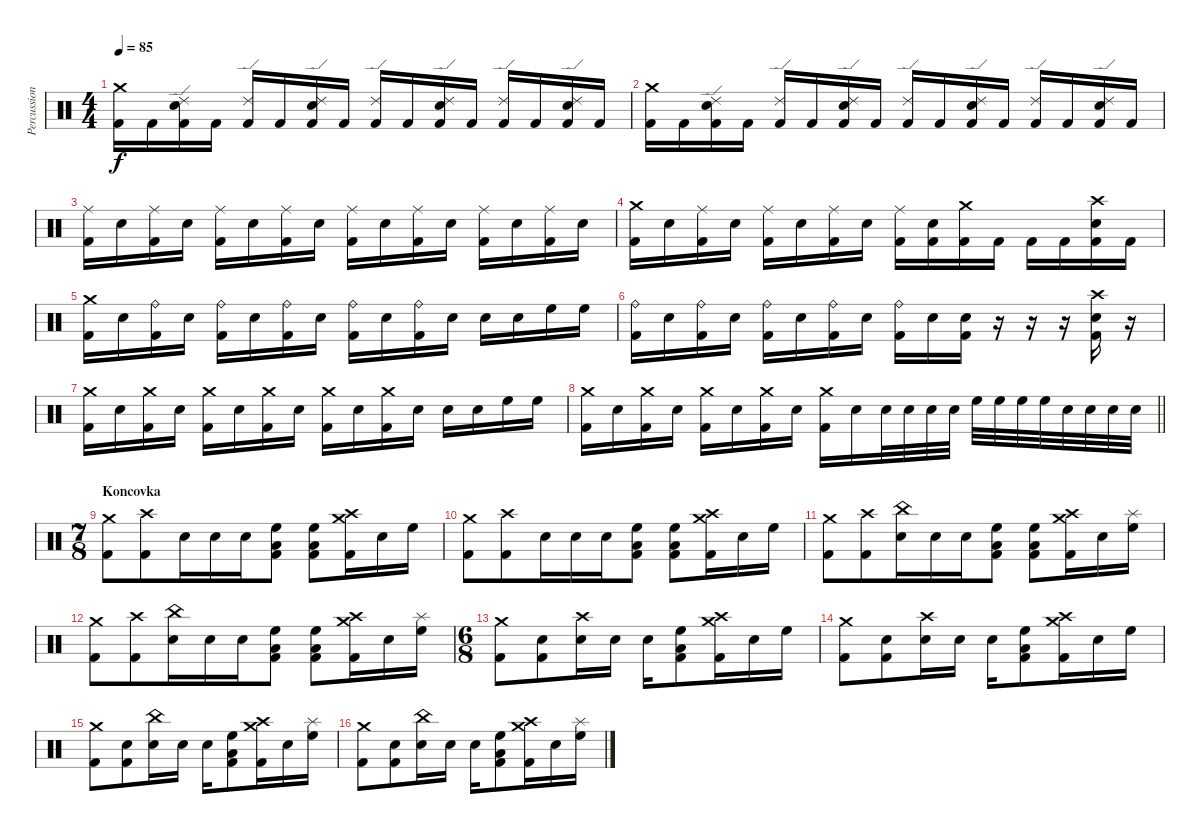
\track ("Percussion" "Percussion") {instrument percussion}
\staff {score}
\articulation defaults
\ts (4 4)
\tempo 85
\clef neutral
\ks c
("Crash medium (hit)" "Kick (hit) 2").16{dy f} "Kick (hit) 2".16 ("Ride (edge) 2" "Electric Snare (hit)" "Kick (hit) 2").16 "Kick (hit) 2".16 ("Ride (edge) 2" "Kick (hit) 2").16 "Kick (hit) 2".16 ("Ride (edge) 2" "Electric Snare (hit)" "Kick (hit) 2").16 "Kick (hit) 2".16 ("Ride (edge) 2" "Kick (hit) 2").16 "Kick (hit) 2".16 ("Ride (edge) 2" "Electric Snare (hit)" "Kick (hit) 2").16 "Kick (hit) 2".16 ("Ride (edge) 2" "Kick (hit) 2").16 "Kick (hit) 2".16 ("Ride (edge) 2" "Electric Snare (hit)" "Kick (hit) 2").16 "Kick (hit) 2".16 |
("Crash medium (hit)" "Kick (hit) 2").16 "Kick (hit) 2".16 ("Ride (edge) 2" "Electric Snare (hit)" "Kick (hit) 2").16 "Kick (hit) 2".16 ("Ride (edge) 2" "Kick (hit) 2").16 "Kick (hit) 2".16 ("Ride (edge) 2" "Electric Snare (hit)" "Kick (hit) 2").16 "Kick (hit) 2".16 ("Ride (edge) 2" "Kick (hit) 2").16 "Kick (hit) 2".16 ("Ride (edge) 2" "Electric Snare (hit)" "Kick (hit) 2").16 "Kick (hit) 2".16 ("Ride (edge) 2" "Kick (hit) 2").16 "Kick (hit) 2".16 ("Ride (edge) 2" "Electric Snare (hit)" "Kick (hit) 2").16 "Kick (hit) 2".16 |
("Ride (middle)" "Kick (hit) 2").16 "Electric Snare (hit)".16 ("Ride (middle)" "Kick (hit) 2").16 "Electric Snare (hit)".16 ("Ride (middle)" "Kick (hit) 2").16 "Electric Snare (hit)".16 ("Ride (middle)" "Kick (hit) 2").16 "Electric Snare (hit)".16 ("Ride (middle)" "Kick (hit) 2").16 "Electric Snare (hit)".16 ("Ride (middle)" "Kick (hit) 2").16 "Electric Snare (hit)".16 ("Ride (middle)" "Kick (hit) 2").16 "Electric Snare (hit)".16 ("Ride (middle)" "Kick (hit) 2").16 "Electric Snare (hit)".16 |
("Crash medium (hit)" "Kick (hit) 2").16 "Electric Snare (hit)".16 ("Ride (middle)" "Kick (hit) 2").16 "Electric Snare (hit)".16 ("Ride (middle)" "Kick (hit) 2").16 "Electric Snare (hit)".16 ("Ride (middle)" "Kick (hit) 2").16 "Electric Snare (hit)".16 ("Ride (middle)" "Kick (hit) 2").16 ("Electric Snare (hit)" "Kick (hit) 2").16 ("Crash medium (hit)" "Kick (hit) 2").16 "Kick (hit) 2".16 "Kick (hit) 2".16 "Kick (hit) 2".16 ("Crash high (hit)" "Electric Snare (hit)" "Kick (hit) 2").16 "Kick (hit) 2".16 |
("Crash medium (hit)" "Kick (hit) 2").16 "Electric Snare (hit)".16 ("Ride (bell)" "Kick (hit) 2").16 "Electric Snare (hit)".16 ("Ride (bell)" "Kick (hit) 2").16 "Electric Snare (hit)".16 ("Ride (bell)" "Kick (hit) 2").16 "Electric Snare (hit)".16 ("Ride (bell)" "Kick (hit) 2").16 "Electric Snare (hit)".16 ("Ride (bell)" "Kick (hit) 2").16 "Electric Snare (hit)".16 "Electric Snare (hit)".16 "Electric Snare (hit)".16 "High Floor Tom (hit)".16 "High Floor Tom (hit)".16 |
("Ride (bell)" "Kick (hit) 2").16 "Electric Snare (hit)".16 ("Ride (bell)" "Kick (hit) 2").16 "Electric Snare (hit)".16 ("Ride (bell)" "Kick (hit) 2").16 "Electric Snare (hit)".16 ("Ride (bell)" "Kick (hit) 2").16 "Electric Snare (hit)".16 ("Ride (bell)" "Kick (hit) 2").16 "Electric Snare (hit)".16 ("Electric Snare (hit)" "Kick (hit) 2").16 r.16 r.16 r.16 ("Crash high (hit)" "Electric Snare (hit)" "Kick (hit) 2").16 r.16 |
("Crash medium (hit)" "Kick (hit) 2").16 "Electric Snare (hit)".16 ("Crash medium (hit)" "Kick (hit) 2").16 "Electric Snare (hit)".16 ("Crash medium (hit)" "Kick (hit) 2").16 "Electric Snare (hit)".16 ("Crash medium (hit)" "Kick (hit) 2").16 "Electric Snare (hit)".16 ("Crash medium (hit)" "Kick (hit) 2").16 "Electric Snare (hit)".16 ("Crash medium (hit)" "Kick (hit) 2").16 "Electric Snare (hit)".16 "Electric Snare (hit)".16 "Electric Snare (hit)".16 "High Floor Tom (hit)".16 "High Floor Tom (hit)".16 |
\barLineRight lightlight
("Crash medium (hit)" "Kick (hit) 2").16 "Electric Snare (hit)".16 ("Crash medium (hit)" "Kick (hit) 2").16 "Electric Snare (hit)".16 ("Crash medium (hit)" "Kick (hit) 2").16 "Electric Snare (hit)".16 ("Crash medium (hit)" "Kick (hit) 2").16 "Electric Snare (hit)".16 ("Crash medium (hit)" "Kick (hit) 2").16 "Electric Snare (hit)".16 "Electric Snare (hit)".32 "Electric Snare (hit)".32 "Electric Snare (hit)".32 "Electric Snare (hit)".32 "High Floor Tom (hit)".32 "High Floor Tom (hit)".32 "High Floor Tom (hit)".32 "High Floor Tom (hit)".32 "Electric Snare (hit)".32 "Electric Snare (hit)".32 "Electric Snare (hit)".32 "Electric Snare (hit)".32 |
\ts (7 8)
\section ("" "Koncovka")
("Crash medium (hit)" "Kick (hit) 2").8 ("Crash high (hit)" "Kick (hit) 2").8 "Electric Snare (hit)".16 "Electric Snare (hit)".16 "Electric Snare (hit)".16 ("Low Tom (hit)" "High Floor Tom (hit)" "Kick (hit) 2").8 ("Low Tom (hit)" "High Floor Tom (hit)" "Kick (hit) 2").8 ("Crash medium (hit)" "Crash high (hit)" "Kick (hit) 2").16 "Electric Snare (hit)".16 "High Floor Tom (hit)".16 |
("Crash medium (hit)" "Kick (hit) 2").8 ("Crash high (hit)" "Kick (hit) 2").8 "Electric Snare (hit)".16 "Electric Snare (hit)".16 "Electric Snare (hit)".16 ("Low Tom (hit)" "High Floor Tom (hit)" "Kick (hit) 2").8 ("Low Tom (hit)" "High Floor Tom (hit)" "Kick (hit) 2").8 ("Crash medium (hit)" "Crash high (hit)" "Kick (hit) 2").16 "Electric Snare (hit)".16 "High Floor Tom (hit)".16 |
("Crash medium (hit)" "Kick (hit) 2").8 ("Crash high (hit)" "Kick (hit) 2").8 ("China (hit)" "Electric Snare (hit)").16 "Electric Snare (hit)".16 "Electric Snare (hit)".16 ("Low Tom (hit)" "High Floor Tom (hit)" "Kick (hit) 2").8 ("Low Tom (hit)" "High Floor Tom (hit)" "Kick (hit) 2").8 ("Crash medium (hit)" "Crash high (hit)" "Kick (hit) 2").16 "Electric Snare (hit)".16 ("Splash (hit)" "High Floor Tom (hit)").16 |
("Crash medium (hit)" "Kick (hit) 2").8 ("Crash high (hit)" "Kick (hit) 2").8 ("China (hit)" "Electric Snare (hit)").16 "Electric Snare (hit)".16 "Electric Snare (hit)".16 ("Low Tom (hit)" "High Floor Tom (hit)" "Kick (hit) 2").8 ("Low Tom (hit)" "High Floor Tom (hit)" "Kick (hit) 2").8 ("Crash medium (hit)" "Crash high (hit)" "Kick (hit) 2").16 "Electric Snare (hit)".16 ("Splash (hit)" "High Floor Tom (hit)").16 |
\ts (6 8)
("Crash medium (hit)" "Kick (hit) 2").8 ("Electric Snare (hit)" "Kick (hit) 2").8 ("Crash high (hit)" "Electric Snare (hit)").16 "Electric Snare (hit)".16 "Electric Snare (hit)".16 ("Low Tom (hit)" "High Floor Tom (hit)" "Kick (hit) 2").8 ("Crash medium (hit)" "Crash high (hit)" "Kick (hit) 2").16 "Electric Snare (hit)".16 "High Floor Tom (hit)".16 |
("Crash medium (hit)" "Kick (hit) 2").8 ("Electric Snare (hit)" "Kick (hit) 2").8 ("Crash high (hit)" "Electric Snare (hit)").16 "Electric Snare (hit)".16 "Electric Snare (hit)".16 ("Low Tom (hit)" "High Floor Tom (hit)" "Kick (hit) 2").8 ("Crash medium (hit)" "Crash high (hit)" "Kick (hit) 2").16 "Electric Snare (hit)".16 "High Floor Tom (hit)".16 |
("Crash medium (hit)" "Kick (hit) 2").8 ("Electric Snare (hit)" "Kick (hit) 2").8 ("China (hit)" "Electric Snare (hit)").16 "Electric Snare (hit)".16 "Electric Snare (hit)".16 ("Low Tom (hit)" "High Floor Tom (hit)" "Kick (hit) 2").8 ("Crash medium (hit)" "Crash high (hit)" "Kick (hit) 2").16 "Electric Snare (hit)".16 ("Splash (hit)" "High Floor Tom (hit)").16 |
("Crash medium (hit)" "Kick (hit) 2").8 ("Electric Snare (hit)" "Kick (hit) 2").8 ("China (hit)" "Electric Snare (hit)").16 "Electric Snare (hit)".16 "Electric Snare (hit)".16 ("Low Tom (hit)" "High Floor Tom (hit)" "Kick (hit) 2").8 ("Crash medium (hit)" "Crash high (hit)" "Kick (hit) 2").16 "Electric Snare (hit)".16 ("Splash (hit)" "High Floor Tom (hit)").16
